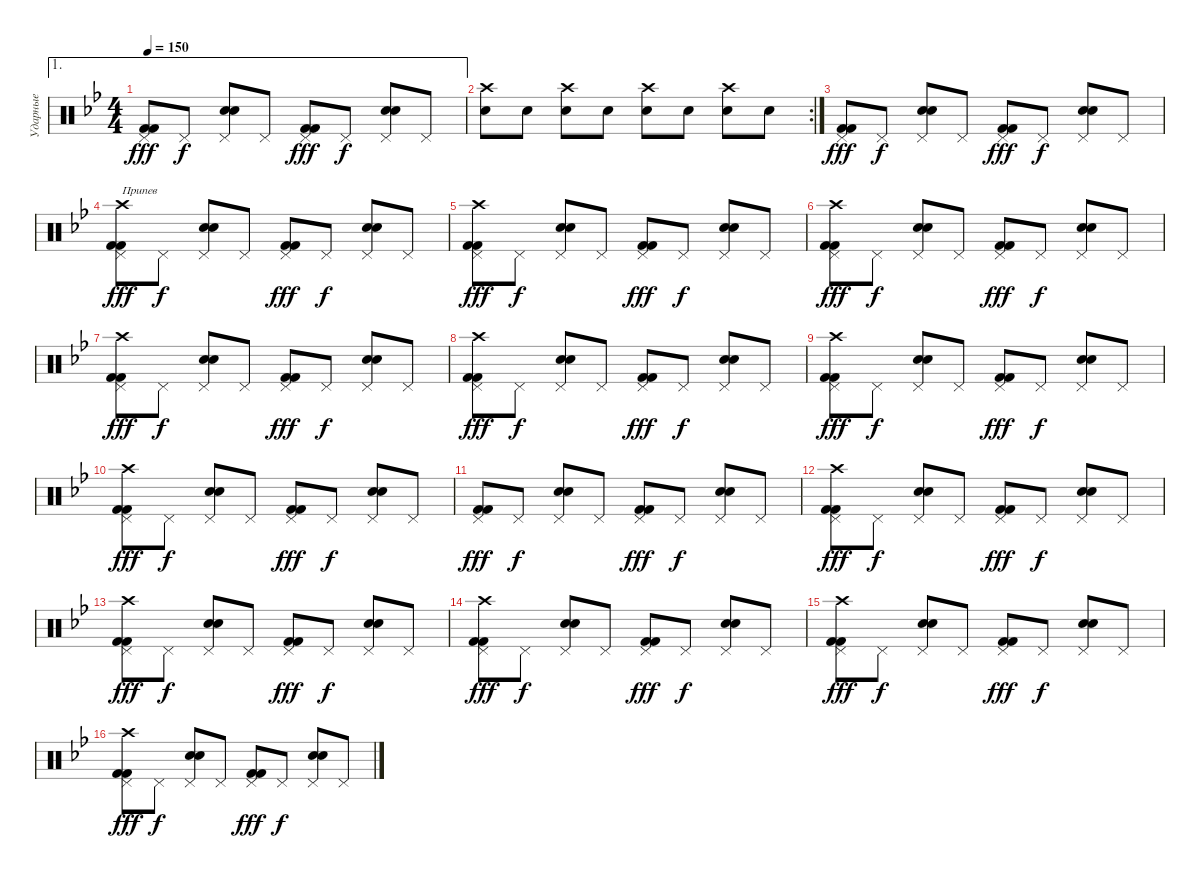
\track ("Ударные" "Ударные") {instrument percussion}
\staff {score}
\articulation defaults
\ae 1
\ts (4 4)
\tempo 150
\clef neutral
\ks gminor
("Kick (hit) 2" "Kick (hit) 2" "Pedal Hi-Hat (hit)").8{dy fff} "Pedal Hi-Hat (hit)".8{dy f} ("Electric Snare (hit)" "Electric Snare (hit)" "Pedal Hi-Hat (hit)").8 "Pedal Hi-Hat (hit)".8 ("Kick (hit) 2" "Kick (hit) 2" "Pedal Hi-Hat (hit)").8{dy fff} "Pedal Hi-Hat (hit)".8{dy f} ("Electric Snare (hit)" "Electric Snare (hit)" "Pedal Hi-Hat (hit)").8 "Pedal Hi-Hat (hit)".8 |
\rc 2
("Crash high (hit)" "Snare (hit) 2").8 "Electric Snare (hit)".8 ("Snare (hit) 2" "Crash high (hit)").8 "Electric Snare (hit)".8 ("Snare (hit) 2" "Crash high (hit)").8 "Electric Snare (hit)".8 ("Snare (hit) 2" "Crash high (hit)").8 "Electric Snare (hit)".8 |
("Kick (hit) 2" "Kick (hit) 2" "Pedal Hi-Hat (hit)").8{dy fff} "Pedal Hi-Hat (hit)".8{dy f} ("Electric Snare (hit)" "Electric Snare (hit)" "Pedal Hi-Hat (hit)").8 "Pedal Hi-Hat (hit)".8 ("Kick (hit) 2" "Kick (hit) 2" "Pedal Hi-Hat (hit)").8{dy fff} "Pedal Hi-Hat (hit)".8{dy f} ("Electric Snare (hit)" "Electric Snare (hit)" "Pedal Hi-Hat (hit)").8 "Pedal Hi-Hat (hit)".8 |
("Kick (hit) 2" "Crash high (hit)" "Kick (hit) 2" "Pedal Hi-Hat (hit)").8{txt "Припев" dy fff} "Pedal Hi-Hat (hit)".8{dy f} ("Electric Snare (hit)" "Electric Snare (hit)" "Pedal Hi-Hat (hit)").8 "Pedal Hi-Hat (hit)".8 ("Kick (hit) 2" "Kick (hit) 2" "Pedal Hi-Hat (hit)").8{dy fff} "Pedal Hi-Hat (hit)".8{dy f} ("Electric Snare (hit)" "Electric Snare (hit)" "Pedal Hi-Hat (hit)").8 "Pedal Hi-Hat (hit)".8 |
("Kick (hit) 2" "Crash high (hit)" "Kick (hit) 2" "Pedal Hi-Hat (hit)").8{dy fff} "Pedal Hi-Hat (hit)".8{dy f} ("Electric Snare (hit)" "Electric Snare (hit)" "Pedal Hi-Hat (hit)").8 "Pedal Hi-Hat (hit)".8 ("Kick (hit) 2" "Kick (hit) 2" "Pedal Hi-Hat (hit)").8{dy fff} "Pedal Hi-Hat (hit)".8{dy f} ("Electric Snare (hit)" "Electric Snare (hit)" "Pedal Hi-Hat (hit)").8 "Pedal Hi-Hat (hit)".8 |
("Kick (hit) 2" "Crash high (hit)" "Kick (hit) 2" "Pedal Hi-Hat (hit)").8{dy fff} "Pedal Hi-Hat (hit)".8{dy f} ("Electric Snare (hit)" "Electric Snare (hit)" "Pedal Hi-Hat (hit)").8 "Pedal Hi-Hat (hit)".8 ("Kick (hit) 2" "Kick (hit) 2" "Pedal Hi-Hat (hit)").8{dy fff} "Pedal Hi-Hat (hit)".8{dy f} ("Electric Snare (hit)" "Electric Snare (hit)" "Pedal Hi-Hat (hit)").8 "Pedal Hi-Hat (hit)".8 |
("Kick (hit) 2" "Crash high (hit)" "Kick (hit) 2" "Pedal Hi-Hat (hit)").8{dy fff} "Pedal Hi-Hat (hit)".8{dy f} ("Electric Snare (hit)" "Electric Snare (hit)" "Pedal Hi-Hat (hit)").8 "Pedal Hi-Hat (hit)".8 ("Kick (hit) 2" "Kick (hit) 2" "Pedal Hi-Hat (hit)").8{dy fff} "Pedal Hi-Hat (hit)".8{dy f} ("Electric Snare (hit)" "Electric Snare (hit)" "Pedal Hi-Hat (hit)").8 "Pedal Hi-Hat (hit)".8 |
("Kick (hit) 2" "Crash high (hit)" "Kick (hit) 2" "Pedal Hi-Hat (hit)").8{dy fff} "Pedal Hi-Hat (hit)".8{dy f} ("Electric Snare (hit)" "Electric Snare (hit)" "Pedal Hi-Hat (hit)").8 "Pedal Hi-Hat (hit)".8 ("Kick (hit) 2" "Kick (hit) 2" "Pedal Hi-Hat (hit)").8{dy fff} "Pedal Hi-Hat (hit)".8{dy f} ("Electric Snare (hit)" "Electric Snare (hit)" "Pedal Hi-Hat (hit)").8 "Pedal Hi-Hat (hit)".8 |
("Kick (hit) 2" "Crash high (hit)" "Kick (hit) 2" "Pedal Hi-Hat (hit)").8{dy fff} "Pedal Hi-Hat (hit)".8{dy f} ("Electric Snare (hit)" "Electric Snare (hit)" "Pedal Hi-Hat (hit)").8 "Pedal Hi-Hat (hit)".8 ("Kick (hit) 2" "Kick (hit) 2" "Pedal Hi-Hat (hit)").8{dy fff} "Pedal Hi-Hat (hit)".8{dy f} ("Electric Snare (hit)" "Electric Snare (hit)" "Pedal Hi-Hat (hit)").8 "Pedal Hi-Hat (hit)".8 |
("Kick (hit) 2" "Crash high (hit)" "Kick (hit) 2" "Pedal Hi-Hat (hit)").8{dy fff} "Pedal Hi-Hat (hit)".8{dy f} ("Electric Snare (hit)" "Electric Snare (hit)" "Pedal Hi-Hat (hit)").8 "Pedal Hi-Hat (hit)".8 ("Kick (hit) 2" "Kick (hit) 2" "Pedal Hi-Hat (hit)").8{dy fff} "Pedal Hi-Hat (hit)".8{dy f} ("Electric Snare (hit)" "Electric Snare (hit)" "Pedal Hi-Hat (hit)").8 "Pedal Hi-Hat (hit)".8 |
("Kick (hit) 2" "Kick (hit) 2" "Pedal Hi-Hat (hit)").8{dy fff} "Pedal Hi-Hat (hit)".8{dy f} ("Electric Snare (hit)" "Electric Snare (hit)" "Pedal Hi-Hat (hit)").8 "Pedal Hi-Hat (hit)".8 ("Kick (hit) 2" "Kick (hit) 2" "Pedal Hi-Hat (hit)").8{dy fff} "Pedal Hi-Hat (hit)".8{dy f} ("Electric Snare (hit)" "Electric Snare (hit)" "Pedal Hi-Hat (hit)").8 "Pedal Hi-Hat (hit)".8 |
("Kick (hit) 2" "Crash high (hit)" "Kick (hit) 2" "Pedal Hi-Hat (hit)").8{dy fff} "Pedal Hi-Hat (hit)".8{dy f} ("Electric Snare (hit)" "Electric Snare (hit)" "Pedal Hi-Hat (hit)").8 "Pedal Hi-Hat (hit)".8 ("Kick (hit) 2" "Kick (hit) 2" "Pedal Hi-Hat (hit)").8{dy fff} "Pedal Hi-Hat (hit)".8{dy f} ("Electric Snare (hit)" "Electric Snare (hit)" "Pedal Hi-Hat (hit)").8 "Pedal Hi-Hat (hit)".8 |
("Kick (hit) 2" "Crash high (hit)" "Kick (hit) 2" "Pedal Hi-Hat (hit)").8{dy fff} "Pedal Hi-Hat (hit)".8{dy f} ("Electric Snare (hit)" "Electric Snare (hit)" "Pedal Hi-Hat (hit)").8 "Pedal Hi-Hat (hit)".8 ("Kick (hit) 2" "Kick (hit) 2" "Pedal Hi-Hat (hit)").8{dy fff} "Pedal Hi-Hat (hit)".8{dy f} ("Electric Snare (hit)" "Electric Snare (hit)" "Pedal Hi-Hat (hit)").8 "Pedal Hi-Hat (hit)".8 |
("Kick (hit) 2" "Crash high (hit)" "Kick (hit) 2" "Pedal Hi-Hat (hit)").8{dy fff} "Pedal Hi-Hat (hit)".8{dy f} ("Electric Snare (hit)" "Electric Snare (hit)" "Pedal Hi-Hat (hit)").8 "Pedal Hi-Hat (hit)".8 ("Kick (hit) 2" "Kick (hit) 2" "Pedal Hi-Hat (hit)").8{dy fff} "Pedal Hi-Hat (hit)".8{dy f} ("Electric Snare (hit)" "Electric Snare (hit)" "Pedal Hi-Hat (hit)").8 "Pedal Hi-Hat (hit)".8 |
("Kick (hit) 2" "Crash high (hit)" "Kick (hit) 2" "Pedal Hi-Hat (hit)").8{dy fff} "Pedal Hi-Hat (hit)".8{dy f} ("Electric Snare (hit)" "Electric Snare (hit)" "Pedal Hi-Hat (hit)").8 "Pedal Hi-Hat (hit)".8 ("Kick (hit) 2" "Kick (hit) 2" "Pedal Hi-Hat (hit)").8{dy fff} "Pedal Hi-Hat (hit)".8{dy f} ("Electric Snare (hit)" "Electric Snare (hit)" "Pedal Hi-Hat (hit)").8 "Pedal Hi-Hat (hit)".8 |
("Kick (hit) 2" "Crash high (hit)" "Kick (hit) 2" "Pedal Hi-Hat (hit)").8{dy fff} "Pedal Hi-Hat (hit)".8{dy f} ("Electric Snare (hit)" "Electric Snare (hit)" "Pedal Hi-Hat (hit)").8 "Pedal Hi-Hat (hit)".8 ("Kick (hit) 2" "Kick (hit) 2" "Pedal Hi-Hat (hit)").8{dy fff} "Pedal Hi-Hat (hit)".8{dy f} ("Electric Snare (hit)" "Electric Snare (hit)" "Pedal Hi-Hat (hit)").8 "Pedal Hi-Hat (hit)".8
